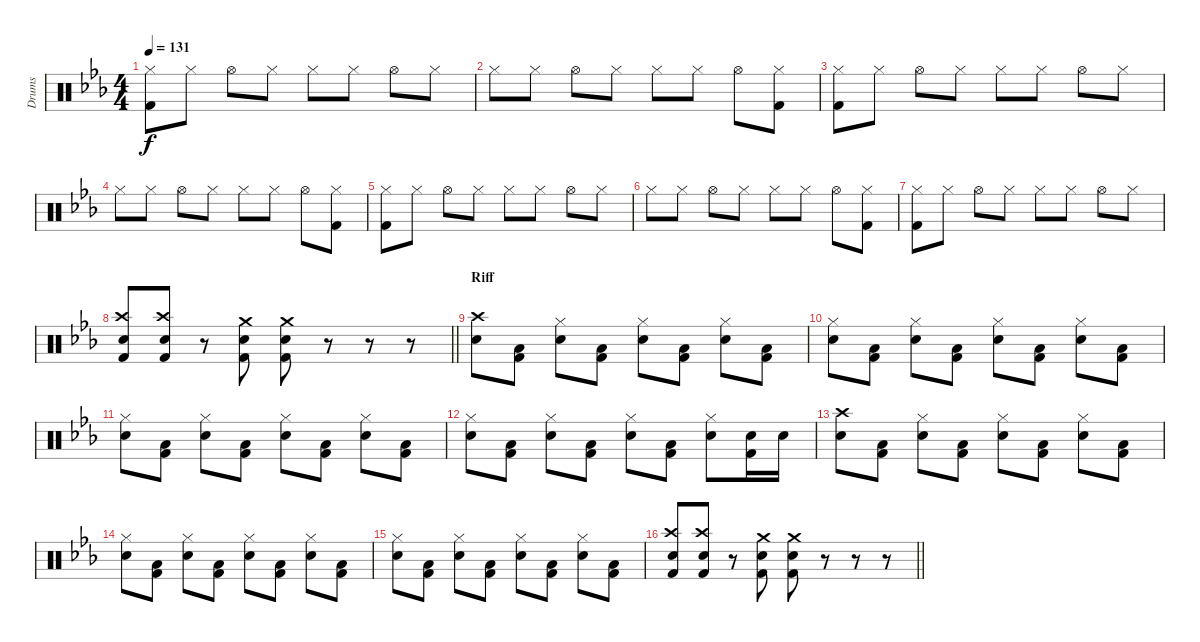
\track ("Drums" "Drums") {instrument percussion}
\staff
\articulation defaults
\ts (4 4)
\tempo 131
\clef neutral
\ks eb
("Hi-Hat (closed)" "Kick (hit) 2").8{dy f} "Hi-Hat (closed)".8 "Hi-Hat (open)".8 "Hi-Hat (closed)".8 "Hi-Hat (closed)".8 "Hi-Hat (closed)".8 "Hi-Hat (open)".8 "Hi-Hat (closed)".8 |
"Hi-Hat (closed)".8 "Hi-Hat (closed)".8 "Hi-Hat (open)".8 "Hi-Hat (closed)".8 "Hi-Hat (closed)".8 "Hi-Hat (closed)".8 "Hi-Hat (open)".8 ("Hi-Hat (closed)" "Kick (hit) 2").8 |
("Hi-Hat (closed)" "Kick (hit) 2").8 "Hi-Hat (closed)".8 "Hi-Hat (open)".8 "Hi-Hat (closed)".8 "Hi-Hat (closed)".8 "Hi-Hat (closed)".8 "Hi-Hat (open)".8 "Hi-Hat (closed)".8 |
"Hi-Hat (closed)".8 "Hi-Hat (closed)".8 "Hi-Hat (open)".8 "Hi-Hat (closed)".8 "Hi-Hat (closed)".8 "Hi-Hat (closed)".8 "Hi-Hat (open)".8 ("Hi-Hat (closed)" "Kick (hit) 2").8 |
("Hi-Hat (closed)" "Kick (hit) 2").8 "Hi-Hat (closed)".8 "Hi-Hat (open)".8 "Hi-Hat (closed)".8 "Hi-Hat (closed)".8 "Hi-Hat (closed)".8 "Hi-Hat (open)".8 "Hi-Hat (closed)".8 |
"Hi-Hat (closed)".8 "Hi-Hat (closed)".8 "Hi-Hat (open)".8 "Hi-Hat (closed)".8 "Hi-Hat (closed)".8 "Hi-Hat (closed)".8 "Hi-Hat (open)".8 ("Hi-Hat (closed)" "Kick (hit) 2").8 |
("Hi-Hat (closed)" "Kick (hit) 2").8 "Hi-Hat (closed)".8 "Hi-Hat (open)".8 "Hi-Hat (closed)".8 "Hi-Hat (closed)".8 "Hi-Hat (closed)".8 "Hi-Hat (open)".8 "Hi-Hat (closed)".8 |
\barLineRight lightlight
("Crash high (hit)" "Snare (hit) 2" "Kick (hit) 2").8 ("Crash high (hit)" "Snare (hit) 2" "Kick (hit) 2").8 r.8 ("Crash medium (hit)" "Snare (hit) 2" "Kick (hit) 2").8 ("Crash medium (hit)" "Snare (hit) 2" "Kick (hit) 2").8 r.8 r.8 r.8 |
\section ("" "Riff")
("Crash high (hit)" "Snare (hit) 2").8 ("Low Floor Tom (hit)" "Kick (hit) 2").8 ("Snare (hit) 2" "Hi-Hat (closed)").8 ("Low Floor Tom (hit)" "Kick (hit) 2").8 ("Snare (hit) 2" "Hi-Hat (closed)").8 ("Low Floor Tom (hit)" "Kick (hit) 2").8 ("Snare (hit) 2" "Hi-Hat (closed)").8 ("Low Floor Tom (hit)" "Kick (hit) 2").8 |
("Snare (hit) 2" "Hi-Hat (closed)").8 ("Low Floor Tom (hit)" "Kick (hit) 2").8 ("Snare (hit) 2" "Hi-Hat (closed)").8 ("Low Floor Tom (hit)" "Kick (hit) 2").8 ("Snare (hit) 2" "Hi-Hat (closed)").8 ("Low Floor Tom (hit)" "Kick (hit) 2").8 ("Snare (hit) 2" "Hi-Hat (closed)").8 ("Low Floor Tom (hit)" "Kick (hit) 2").8 |
("Snare (hit) 2" "Hi-Hat (closed)").8 ("Low Floor Tom (hit)" "Kick (hit) 2").8 ("Snare (hit) 2" "Hi-Hat (closed)").8 ("Low Floor Tom (hit)" "Kick (hit) 2").8 ("Snare (hit) 2" "Hi-Hat (closed)").8 ("Low Floor Tom (hit)" "Kick (hit) 2").8 ("Snare (hit) 2" "Hi-Hat (closed)").8 ("Low Floor Tom (hit)" "Kick (hit) 2").8 |
("Snare (hit) 2" "Hi-Hat (closed)").8 ("Low Floor Tom (hit)" "Kick (hit) 2").8 ("Snare (hit) 2" "Hi-Hat (closed)").8 ("Low Floor Tom (hit)" "Kick (hit) 2").8 ("Snare (hit) 2" "Hi-Hat (closed)").8 ("Low Floor Tom (hit)" "Kick (hit) 2").8 ("Snare (hit) 2" "Hi-Hat (closed)").8 ("Snare (hit) 2" "Kick (hit) 2").16 "Snare (hit) 2".16 |
("Crash high (hit)" "Snare (hit) 2").8 ("Low Floor Tom (hit)" "Kick (hit) 2").8 ("Snare (hit) 2" "Hi-Hat (closed)").8 ("Low Floor Tom (hit)" "Kick (hit) 2").8 ("Snare (hit) 2" "Hi-Hat (closed)").8 ("Low Floor Tom (hit)" "Kick (hit) 2").8 ("Snare (hit) 2" "Hi-Hat (closed)").8 ("Low Floor Tom (hit)" "Kick (hit) 2").8 |
("Snare (hit) 2" "Hi-Hat (closed)").8 ("Low Floor Tom (hit)" "Kick (hit) 2").8 ("Snare (hit) 2" "Hi-Hat (closed)").8 ("Low Floor Tom (hit)" "Kick (hit) 2").8 ("Snare (hit) 2" "Hi-Hat (closed)").8 ("Low Floor Tom (hit)" "Kick (hit) 2").8 ("Snare (hit) 2" "Hi-Hat (closed)").8 ("Low Floor Tom (hit)" "Kick (hit) 2").8 |
("Snare (hit) 2" "Hi-Hat (closed)").8 ("Low Floor Tom (hit)" "Kick (hit) 2").8 ("Snare (hit) 2" "Hi-Hat (closed)").8 ("Low Floor Tom (hit)" "Kick (hit) 2").8 ("Snare (hit) 2" "Hi-Hat (closed)").8 ("Low Floor Tom (hit)" "Kick (hit) 2").8 ("Snare (hit) 2" "Hi-Hat (closed)").8 ("Low Floor Tom (hit)" "Kick (hit) 2").8 |
\barLineRight lightlight
("Crash high (hit)" "Snare (hit) 2" "Kick (hit) 2").8 ("Crash high (hit)" "Snare (hit) 2" "Kick (hit) 2").8 r.8 ("Crash medium (hit)" "Snare (hit) 2" "Kick (hit) 2").8 ("Crash medium (hit)" "Snare (hit) 2" "Kick (hit) 2").8 r.8 r.8 r.8
